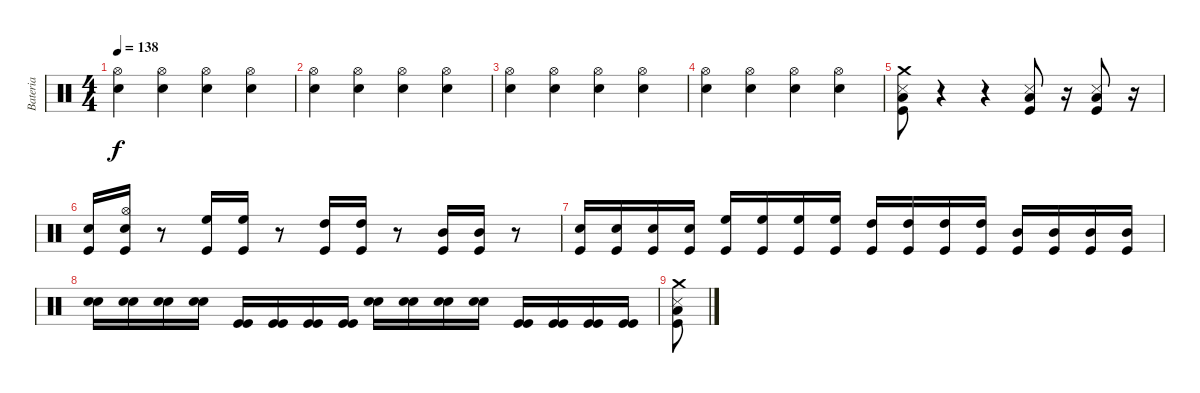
\track ("Bateria" "Bateria") {instrument percussion}
\staff {score}
\articulation defaults
\ts (4 4)
\tempo 138
\clef neutral
\ks c
("Snare (hit) 2" "Hi-Hat (open)").4{dy f} ("Snare (hit) 2" "Hi-Hat (open)").4 ("Snare (hit) 2" "Hi-Hat (open)").4 ("Snare (hit) 2" "Hi-Hat (open)").4 |
("Snare (hit) 2" "Hi-Hat (open)").4 ("Snare (hit) 2" "Hi-Hat (open)").4 ("Snare (hit) 2" "Hi-Hat (open)").4 ("Snare (hit) 2" "Hi-Hat (open)").4 |
("Snare (hit) 2" "Hi-Hat (open)").4 ("Snare (hit) 2" "Hi-Hat (open)").4 ("Snare (hit) 2" "Hi-Hat (open)").4 ("Snare (hit) 2" "Hi-Hat (open)").4 |
("Snare (hit) 2" "Hi-Hat (open)").4 ("Snare (hit) 2" "Hi-Hat (open)").4 ("Snare (hit) 2" "Hi-Hat (open)").4 ("Snare (hit) 2" "Hi-Hat (open)").4 |
("Crash medium (hit)" "Snare (side stick) 3" "Low Floor Tom (hit)" "Kick (hit)").8 r.4 r.4 ("Snare (side stick) 3" "Low Floor Tom (hit)" "Kick (hit)").8 r.16 ("Snare (side stick) 3" "Low Floor Tom (hit)" "Kick (hit)").8 r.16 |
("Snare (hit) 2" "Kick (hit)").16 ("Hi-Hat (open)" "Snare (hit) 2" "Kick (hit)").16 r.8 ("High Floor Tom (hit)" "Kick (hit)").16 ("High Floor Tom (hit)" "Kick (hit)").16 r.8 ("High Tom (hit)" "Kick (hit)").16 ("High Tom (hit)" "Kick (hit)").16 r.8 ("Mid Tom (hit)" "Kick (hit)").16 ("Mid Tom (hit)" "Kick (hit)").16 r.8 |
("Snare (hit) 2" "Kick (hit)").16 ("Snare (hit) 2" "Kick (hit)").16 ("Snare (hit) 2" "Kick (hit)").16 ("Snare (hit) 2" "Kick (hit)").16 ("High Floor Tom (hit)" "Kick (hit)").16 ("High Floor Tom (hit)" "Kick (hit)").16 ("High Floor Tom (hit)" "Kick (hit)").16 ("High Floor Tom (hit)" "Kick (hit)").16 ("High Tom (hit)" "Kick (hit)").16 ("High Tom (hit)" "Kick (hit)").16 ("High Tom (hit)" "Kick (hit)").16 ("High Tom (hit)" "Kick (hit)").16 ("Mid Tom (hit)" "Kick (hit)").16 ("Mid Tom (hit)" "Kick (hit)").16 ("Mid Tom (hit)" "Kick (hit)").16 ("Mid Tom (hit)" "Kick (hit)").16 |
("Snare (hit) 2" "Snare (hit) 2").16 ("Snare (hit) 2" "Snare (hit) 2").16 ("Snare (hit) 2" "Snare (hit) 2").16 ("Snare (hit) 2" "Snare (hit) 2").16 ("Kick (hit)" "Kick (hit)").16 ("Kick (hit)" "Kick (hit)").16 ("Kick (hit)" "Kick (hit)").16 ("Kick (hit)" "Kick (hit)").16 ("Snare (hit) 2" "Snare (hit) 2").16 ("Snare (hit) 2" "Snare (hit) 2").16 ("Snare (hit) 2" "Snare (hit) 2").16 ("Snare (hit) 2" "Snare (hit) 2").16 ("Kick (hit)" "Kick (hit)").16 ("Kick (hit)" "Kick (hit)").16 ("Kick (hit)" "Kick (hit)").16 ("Kick (hit)" "Kick (hit)").16 |
("Crash medium (hit)" "Snare (side stick) 3" "Low Floor Tom (hit)" "Kick (hit)").8
